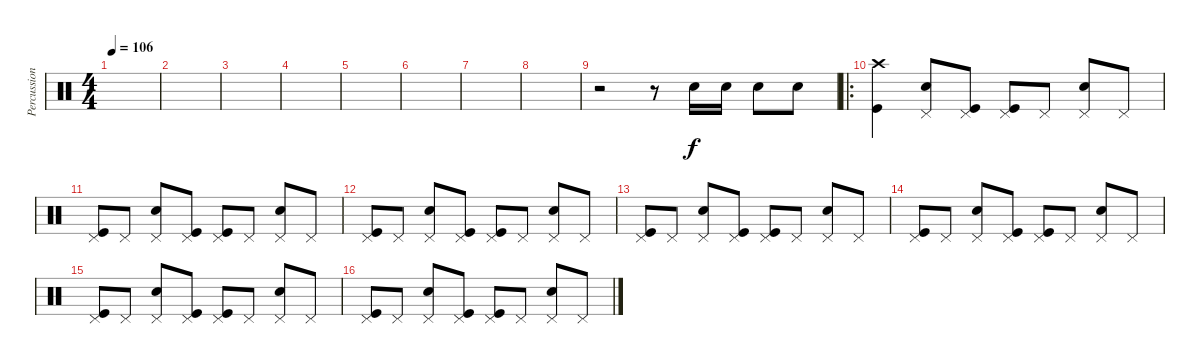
\track ("Percussion" "Percussion") {instrument percussion}
\staff {score}
\articulation defaults
\ts (4 4)
\tempo 106
\clef neutral
\ks c
|
|
|
|
|
|
|
|
r.2 r.8 "Snare (hit) 2".16 "Snare (hit) 2".16 "Snare (hit) 2".8 "Snare (hit) 2".8 |
\ro
("Crash high (hit)" "Kick (hit)").4 ("Pedal Hi-Hat (hit)" "Snare (hit) 2").8 ("Pedal Hi-Hat (hit)" "Kick (hit)").8 ("Pedal Hi-Hat (hit)" "Kick (hit)").8 "Pedal Hi-Hat (hit)".8 ("Pedal Hi-Hat (hit)" "Snare (hit) 2").8 "Pedal Hi-Hat (hit)".8 |
("Pedal Hi-Hat (hit)" "Kick (hit)").8 "Pedal Hi-Hat (hit)".8 ("Pedal Hi-Hat (hit)" "Snare (hit) 2").8 ("Pedal Hi-Hat (hit)" "Kick (hit)").8 ("Pedal Hi-Hat (hit)" "Kick (hit)").8 "Pedal Hi-Hat (hit)".8 ("Pedal Hi-Hat (hit)" "Snare (hit) 2").8 "Pedal Hi-Hat (hit)".8 |
("Pedal Hi-Hat (hit)" "Kick (hit)").8 "Pedal Hi-Hat (hit)".8 ("Pedal Hi-Hat (hit)" "Snare (hit) 2").8 ("Pedal Hi-Hat (hit)" "Kick (hit)").8 ("Pedal Hi-Hat (hit)" "Kick (hit)").8 "Pedal Hi-Hat (hit)".8 ("Pedal Hi-Hat (hit)" "Snare (hit) 2").8 "Pedal Hi-Hat (hit)".8 |
("Pedal Hi-Hat (hit)" "Kick (hit)").8 "Pedal Hi-Hat (hit)".8 ("Pedal Hi-Hat (hit)" "Snare (hit) 2").8 ("Pedal Hi-Hat (hit)" "Kick (hit)").8 ("Pedal Hi-Hat (hit)" "Kick (hit)").8 "Pedal Hi-Hat (hit)".8 ("Pedal Hi-Hat (hit)" "Snare (hit) 2").8 "Pedal Hi-Hat (hit)".8 |
("Pedal Hi-Hat (hit)" "Kick (hit)").8 "Pedal Hi-Hat (hit)".8 ("Pedal Hi-Hat (hit)" "Snare (hit) 2").8 ("Pedal Hi-Hat (hit)" "Kick (hit)").8 ("Pedal Hi-Hat (hit)" "Kick (hit)").8 "Pedal Hi-Hat (hit)".8 ("Pedal Hi-Hat (hit)" "Snare (hit) 2").8 "Pedal Hi-Hat (hit)".8 |
("Pedal Hi-Hat (hit)" "Kick (hit)").8 "Pedal Hi-Hat (hit)".8 ("Pedal Hi-Hat (hit)" "Snare (hit) 2").8 ("Pedal Hi-Hat (hit)" "Kick (hit)").8 ("Pedal Hi-Hat (hit)" "Kick (hit)").8 "Pedal Hi-Hat (hit)".8 ("Pedal Hi-Hat (hit)" "Snare (hit) 2").8 "Pedal Hi-Hat (hit)".8 |
("Pedal Hi-Hat (hit)" "Kick (hit)").8 "Pedal Hi-Hat (hit)".8 ("Pedal Hi-Hat (hit)" "Snare (hit) 2").8 ("Pedal Hi-Hat (hit)" "Kick (hit)").8 ("Pedal Hi-Hat (hit)" "Kick (hit)").8 "Pedal Hi-Hat (hit)".8 ("Pedal Hi-Hat (hit)" "Snare (hit) 2").8 "Pedal Hi-Hat (hit)".8
